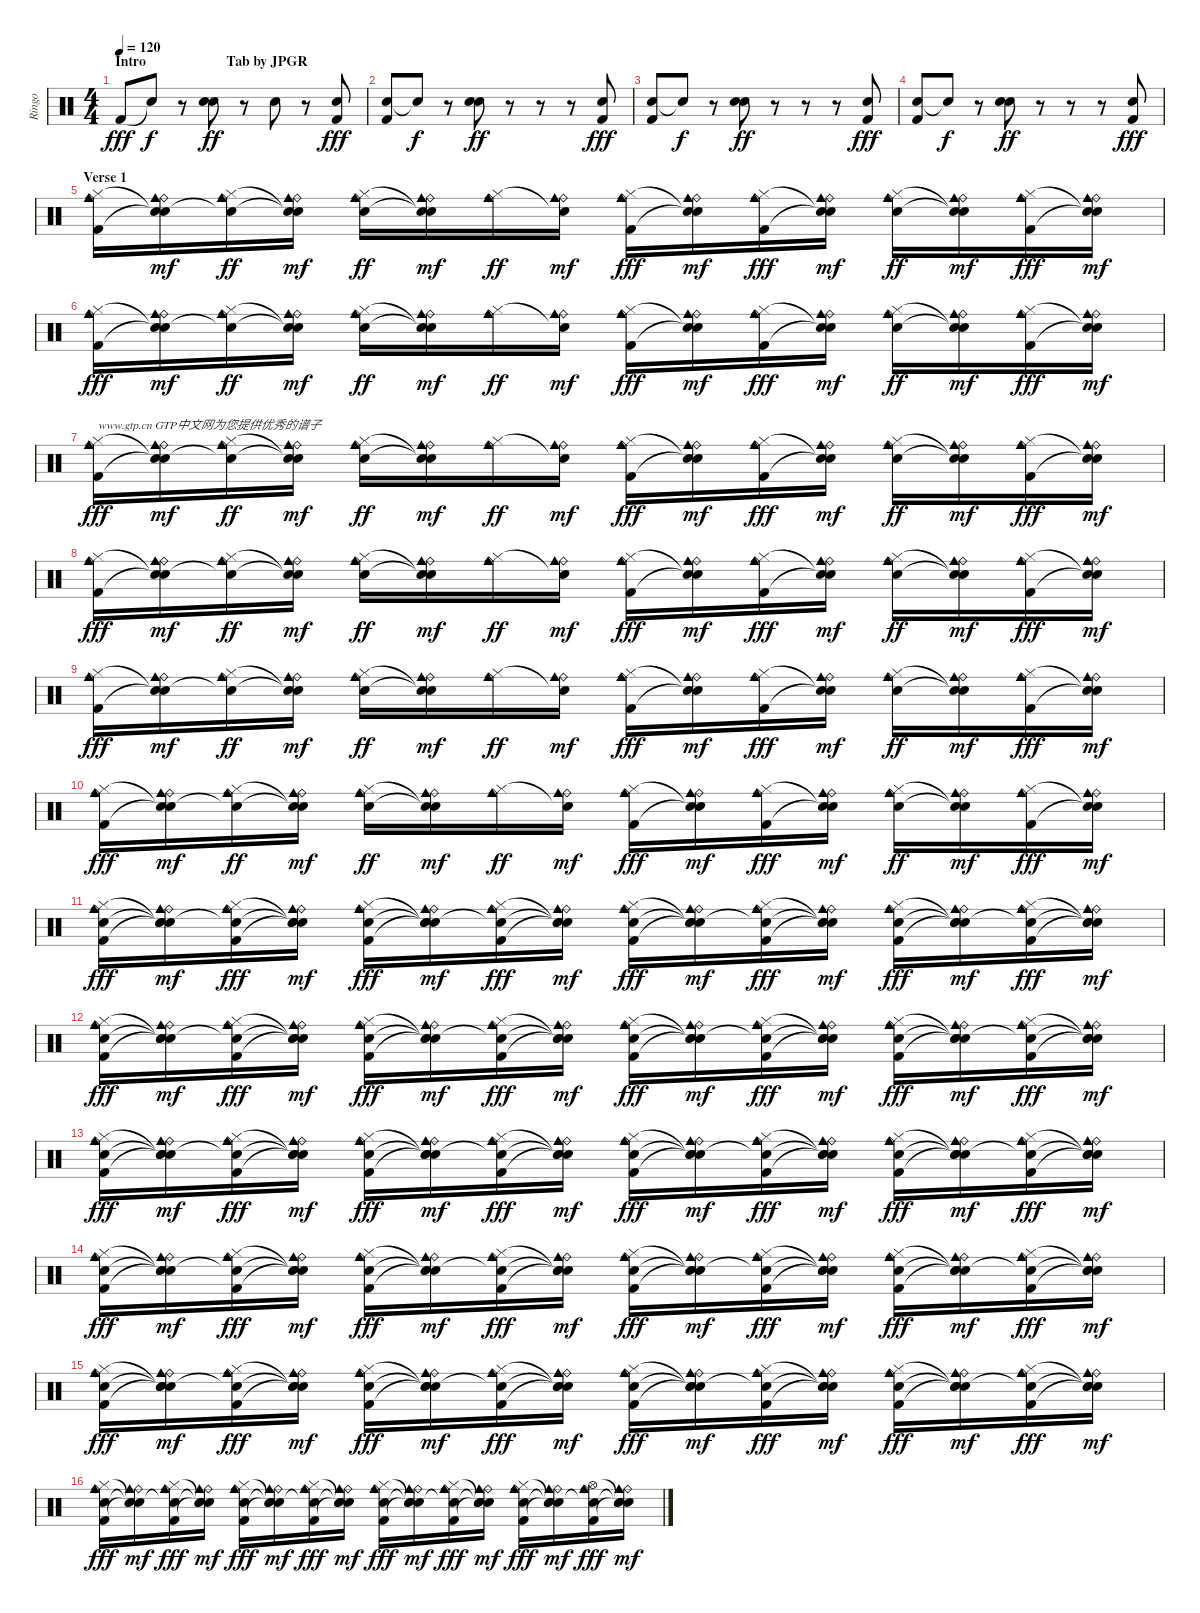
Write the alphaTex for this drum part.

\track ("Ringo" "Ringo") {instrument percussion}
\staff {score}
\articulation defaults
\ts (4 4)
\section ("" "Intro                       Tab by JPGR")
\tempo 120
\clef neutral
\ks c "Kick (hit) 2".8{dy fff} "Snare (hit)"{t}.8{dy f}
r.8 ("Hand Clap (hit)" "Electric Snare (hit)").8{dy ff} r.8 "Hand Clap (hit)".8 r.8 ("Hand Clap (hit)" "Kick (hit) 2").8{dy fff} |
("Hand Clap (hit)" "Kick (hit) 2").8 "Snare (hit)"{t}.8{dy f} r.8 ("Hand Clap (hit)" "Electric Snare (hit)").8{dy ff} r.8 r.8 r.8 ("Hand Clap (hit)" "Kick (hit) 2").8{dy fff} |
("Hand Clap (hit)" "Kick (hit) 2").8 "Snare (hit)"{t}.8{dy f} r.8 ("Hand Clap (hit)" "Electric Snare (hit)").8{dy ff} r.8 r.8 r.8 ("Hand Clap (hit)" "Kick (hit) 2").8{dy fff} |
("Hand Clap (hit)" "Kick (hit) 2").8 "Snare (hit)"{t}.8{dy f} r.8 ("Hand Clap (hit)" "Electric Snare (hit)").8{dy ff} r.8 r.8 r.8 ("Hand Clap (hit)" "Kick (hit) 2").8{dy fff} |
\section ("" "Verse 1")
("Ride (bell)" "Cowbell medium (hit)" "Hi-Hat (closed)" "Kick (hit) 2").16 ("Ride (bell)" "Cowbell medium (hit)" "Snare (hit)"{t} "Snare (hit)"{t}).16{dy mf} ("Ride (bell)" "Cowbell medium (hit)" "Hi-Hat (closed)" "Snare (hit)"{t}).16{dy ff} ("Ride (bell)" "Cowbell medium (hit)" "Snare (hit)"{t} "Snare (hit)"{t}).16{dy mf} ("Ride (bell)" "Cowbell medium (hit)" "Hi-Hat (closed)" "Electric Snare (hit)").16{dy ff} ("Ride (bell)" "Cowbell medium (hit)" "Snare (hit)"{t} "Snare (hit)"{t}).16{dy mf} ("Ride (bell)" "Cowbell medium (hit)" "Hi-Hat (closed)").16{dy ff} ("Ride (bell)" "Cowbell medium (hit)" "Snare (hit)"{t}).16{dy mf} ("Ride (bell)" "Cowbell medium (hit)" "Hi-Hat (closed)" "Kick (hit) 2").16{dy fff} ("Ride (bell)" "Cowbell medium (hit)" "Snare (hit)"{t} "Snare (hit)"{t}).16{dy mf} ("Ride (bell)" "Cowbell medium (hit)" "Hi-Hat (closed)" "Kick (hit) 2").16{dy fff} ("Ride (bell)" "Cowbell medium (hit)" "Snare (hit)"{t} "Snare (hit)"{t}).16{dy mf} ("Ride (bell)" "Cowbell medium (hit)" "Hi-Hat (closed)" "Electric Snare (hit)").16{dy ff} ("Ride (bell)" "Cowbell medium (hit)" "Snare (hit)"{t} "Snare (hit)"{t}).16{dy mf} ("Ride (bell)" "Cowbell medium (hit)" "Hi-Hat (closed)" "Kick (hit) 2").16{dy fff} ("Ride (bell)" "Cowbell medium (hit)" "Snare (hit)"{t} "Snare (hit)"{t}).16{dy mf} |
("Ride (bell)" "Cowbell medium (hit)" "Hi-Hat (closed)" "Kick (hit) 2").16{dy fff} ("Ride (bell)" "Cowbell medium (hit)" "Snare (hit)"{t} "Snare (hit)"{t}).16{dy mf} ("Ride (bell)" "Cowbell medium (hit)" "Hi-Hat (closed)" "Snare (hit)"{t}).16{dy ff} ("Ride (bell)" "Cowbell medium (hit)" "Snare (hit)"{t} "Snare (hit)"{t}).16{dy mf} ("Ride (bell)" "Cowbell medium (hit)" "Hi-Hat (closed)" "Electric Snare (hit)").16{dy ff} ("Ride (bell)" "Cowbell medium (hit)" "Snare (hit)"{t} "Snare (hit)"{t}).16{dy mf} ("Ride (bell)" "Cowbell medium (hit)" "Hi-Hat (closed)").16{dy ff} ("Ride (bell)" "Cowbell medium (hit)" "Snare (hit)"{t}).16{dy mf} ("Ride (bell)" "Cowbell medium (hit)" "Hi-Hat (closed)" "Kick (hit) 2").16{dy fff} ("Ride (bell)" "Cowbell medium (hit)" "Snare (hit)"{t} "Snare (hit)"{t}).16{dy mf} ("Ride (bell)" "Cowbell medium (hit)" "Hi-Hat (closed)" "Kick (hit) 2").16{dy fff} ("Ride (bell)" "Cowbell medium (hit)" "Snare (hit)"{t} "Snare (hit)"{t}).16{dy mf} ("Ride (bell)" "Cowbell medium (hit)" "Hi-Hat (closed)" "Electric Snare (hit)").16{dy ff} ("Ride (bell)" "Cowbell medium (hit)" "Snare (hit)"{t} "Snare (hit)"{t}).16{dy mf} ("Ride (bell)" "Cowbell medium (hit)" "Hi-Hat (closed)" "Kick (hit) 2").16{dy fff} ("Ride (bell)" "Cowbell medium (hit)" "Snare (hit)"{t} "Snare (hit)"{t}).16{dy mf} |
("Ride (bell)" "Cowbell medium (hit)" "Hi-Hat (closed)" "Kick (hit) 2").16{txt "www.gtp.cn GTP中文网为您提供优秀的谱子" dy fff} ("Ride (bell)" "Cowbell medium (hit)" "Snare (hit)"{t} "Snare (hit)"{t}).16{dy mf} ("Ride (bell)" "Cowbell medium (hit)" "Hi-Hat (closed)" "Snare (hit)"{t}).16{dy ff} ("Ride (bell)" "Cowbell medium (hit)" "Snare (hit)"{t} "Snare (hit)"{t}).16{dy mf} ("Ride (bell)" "Cowbell medium (hit)" "Hi-Hat (closed)" "Electric Snare (hit)").16{dy ff} ("Ride (bell)" "Cowbell medium (hit)" "Snare (hit)"{t} "Snare (hit)"{t}).16{dy mf} ("Ride (bell)" "Cowbell medium (hit)" "Hi-Hat (closed)").16{dy ff} ("Ride (bell)" "Cowbell medium (hit)" "Snare (hit)"{t}).16{dy mf} ("Ride (bell)" "Cowbell medium (hit)" "Hi-Hat (closed)" "Kick (hit) 2").16{dy fff} ("Ride (bell)" "Cowbell medium (hit)" "Snare (hit)"{t} "Snare (hit)"{t}).16{dy mf} ("Ride (bell)" "Cowbell medium (hit)" "Hi-Hat (closed)" "Kick (hit) 2").16{dy fff} ("Ride (bell)" "Cowbell medium (hit)" "Snare (hit)"{t} "Snare (hit)"{t}).16{dy mf} ("Ride (bell)" "Cowbell medium (hit)" "Hi-Hat (closed)" "Electric Snare (hit)").16{dy ff} ("Ride (bell)" "Cowbell medium (hit)" "Snare (hit)"{t} "Snare (hit)"{t}).16{dy mf} ("Ride (bell)" "Cowbell medium (hit)" "Hi-Hat (closed)" "Kick (hit) 2").16{dy fff} ("Ride (bell)" "Cowbell medium (hit)" "Snare (hit)"{t} "Snare (hit)"{t}).16{dy mf} |
("Ride (bell)" "Cowbell medium (hit)" "Hi-Hat (closed)" "Kick (hit) 2").16{dy fff} ("Ride (bell)" "Cowbell medium (hit)" "Snare (hit)"{t} "Snare (hit)"{t}).16{dy mf} ("Ride (bell)" "Cowbell medium (hit)" "Hi-Hat (closed)" "Snare (hit)"{t}).16{dy ff} ("Ride (bell)" "Cowbell medium (hit)" "Snare (hit)"{t} "Snare (hit)"{t}).16{dy mf} ("Ride (bell)" "Cowbell medium (hit)" "Hi-Hat (closed)" "Electric Snare (hit)").16{dy ff} ("Ride (bell)" "Cowbell medium (hit)" "Snare (hit)"{t} "Snare (hit)"{t}).16{dy mf} ("Ride (bell)" "Cowbell medium (hit)" "Hi-Hat (closed)").16{dy ff} ("Ride (bell)" "Cowbell medium (hit)" "Snare (hit)"{t}).16{dy mf} ("Ride (bell)" "Cowbell medium (hit)" "Hi-Hat (closed)" "Kick (hit) 2").16{dy fff} ("Ride (bell)" "Cowbell medium (hit)" "Snare (hit)"{t} "Snare (hit)"{t}).16{dy mf} ("Ride (bell)" "Cowbell medium (hit)" "Hi-Hat (closed)" "Kick (hit) 2").16{dy fff} ("Ride (bell)" "Cowbell medium (hit)" "Snare (hit)"{t} "Snare (hit)"{t}).16{dy mf} ("Ride (bell)" "Cowbell medium (hit)" "Hi-Hat (closed)" "Electric Snare (hit)").16{dy ff} ("Ride (bell)" "Cowbell medium (hit)" "Snare (hit)"{t} "Snare (hit)"{t}).16{dy mf} ("Ride (bell)" "Cowbell medium (hit)" "Hi-Hat (closed)" "Kick (hit) 2").16{dy fff} ("Ride (bell)" "Cowbell medium (hit)" "Snare (hit)"{t} "Snare (hit)"{t}).16{dy mf} |
("Ride (bell)" "Cowbell medium (hit)" "Hi-Hat (closed)" "Kick (hit) 2").16{dy fff} ("Ride (bell)" "Cowbell medium (hit)" "Snare (hit)"{t} "Snare (hit)"{t}).16{dy mf} ("Ride (bell)" "Cowbell medium (hit)" "Hi-Hat (closed)" "Snare (hit)"{t}).16{dy ff} ("Ride (bell)" "Cowbell medium (hit)" "Snare (hit)"{t} "Snare (hit)"{t}).16{dy mf} ("Ride (bell)" "Cowbell medium (hit)" "Hi-Hat (closed)" "Electric Snare (hit)").16{dy ff} ("Ride (bell)" "Cowbell medium (hit)" "Snare (hit)"{t} "Snare (hit)"{t}).16{dy mf} ("Ride (bell)" "Cowbell medium (hit)" "Hi-Hat (closed)").16{dy ff} ("Ride (bell)" "Cowbell medium (hit)" "Snare (hit)"{t}).16{dy mf} ("Ride (bell)" "Cowbell medium (hit)" "Hi-Hat (closed)" "Kick (hit) 2").16{dy fff} ("Ride (bell)" "Cowbell medium (hit)" "Snare (hit)"{t} "Snare (hit)"{t}).16{dy mf} ("Ride (bell)" "Cowbell medium (hit)" "Hi-Hat (closed)" "Kick (hit) 2").16{dy fff} ("Ride (bell)" "Cowbell medium (hit)" "Snare (hit)"{t} "Snare (hit)"{t}).16{dy mf} ("Ride (bell)" "Cowbell medium (hit)" "Hi-Hat (closed)" "Electric Snare (hit)").16{dy ff} ("Ride (bell)" "Cowbell medium (hit)" "Snare (hit)"{t} "Snare (hit)"{t}).16{dy mf} ("Ride (bell)" "Cowbell medium (hit)" "Hi-Hat (closed)" "Kick (hit) 2").16{dy fff} ("Ride (bell)" "Cowbell medium (hit)" "Snare (hit)"{t} "Snare (hit)"{t}).16{dy mf} |
("Ride (bell)" "Cowbell medium (hit)" "Hi-Hat (closed)" "Kick (hit) 2").16{dy fff} ("Ride (bell)" "Cowbell medium (hit)" "Snare (hit)"{t} "Snare (hit)"{t}).16{dy mf} ("Ride (bell)" "Cowbell medium (hit)" "Hi-Hat (closed)" "Snare (hit)"{t}).16{dy ff} ("Ride (bell)" "Cowbell medium (hit)" "Snare (hit)"{t} "Snare (hit)"{t}).16{dy mf} ("Ride (bell)" "Cowbell medium (hit)" "Hi-Hat (closed)" "Electric Snare (hit)").16{dy ff} ("Ride (bell)" "Cowbell medium (hit)" "Snare (hit)"{t} "Snare (hit)"{t}).16{dy mf} ("Ride (bell)" "Cowbell medium (hit)" "Hi-Hat (closed)").16{dy ff} ("Ride (bell)" "Cowbell medium (hit)" "Snare (hit)"{t}).16{dy mf} ("Ride (bell)" "Cowbell medium (hit)" "Hi-Hat (closed)" "Kick (hit) 2").16{dy fff} ("Ride (bell)" "Cowbell medium (hit)" "Snare (hit)"{t} "Snare (hit)"{t}).16{dy mf} ("Ride (bell)" "Cowbell medium (hit)" "Hi-Hat (closed)" "Kick (hit) 2").16{dy fff} ("Ride (bell)" "Cowbell medium (hit)" "Snare (hit)"{t} "Snare (hit)"{t}).16{dy mf} ("Ride (bell)" "Cowbell medium (hit)" "Hi-Hat (closed)" "Electric Snare (hit)").16{dy ff} ("Ride (bell)" "Cowbell medium (hit)" "Snare (hit)"{t} "Snare (hit)"{t}).16{dy mf} ("Ride (bell)" "Cowbell medium (hit)" "Hi-Hat (closed)" "Kick (hit) 2").16{dy fff} ("Ride (bell)" "Cowbell medium (hit)" "Snare (hit)"{t} "Snare (hit)"{t}).16{dy mf} |
("Ride (bell)" "Cowbell medium (hit)" "Hi-Hat (closed)" "Electric Snare (hit)" "Kick (hit) 2").16{dy fff} ("Ride (bell)" "Cowbell medium (hit)" "Snare (hit)"{t} "Snare (hit)"{t} "Snare (hit)"{t}).16{dy mf} ("Ride (bell)" "Cowbell medium (hit)" "Hi-Hat (closed)" "Electric Snare (hit)"{t} "Kick (hit) 2").16{dy fff} ("Ride (bell)" "Cowbell medium (hit)" "Snare (hit)"{t} "Snare (hit)"{t} "Snare (hit)"{t}).16{dy mf} ("Ride (bell)" "Cowbell medium (hit)" "Hi-Hat (closed)" "Electric Snare (hit)" "Kick (hit) 2").16{dy fff} ("Ride (bell)" "Cowbell medium (hit)" "Snare (hit)"{t} "Snare (hit)"{t} "Snare (hit)"{t}).16{dy mf} ("Ride (bell)" "Cowbell medium (hit)" "Hi-Hat (closed)" "Snare (hit)"{t} "Kick (hit) 2").16{dy fff} ("Ride (bell)" "Cowbell medium (hit)" "Snare (hit)"{t} "Snare (hit)"{t} "Snare (hit)"{t}).16{dy mf} ("Ride (bell)" "Cowbell medium (hit)" "Hi-Hat (closed)" "Electric Snare (hit)" "Kick (hit) 2").16{dy fff} ("Ride (bell)" "Cowbell medium (hit)" "Snare (hit)"{t} "Snare (hit)"{t} "Snare (hit)"{t}).16{dy mf} ("Ride (bell)" "Cowbell medium (hit)" "Hi-Hat (closed)" "Snare (hit)"{t} "Kick (hit) 2").16{dy fff} ("Ride (bell)" "Cowbell medium (hit)" "Snare (hit)"{t} "Snare (hit)"{t} "Snare (hit)"{t}).16{dy mf} ("Ride (bell)" "Cowbell medium (hit)" "Hi-Hat (closed)" "Electric Snare (hit)" "Kick (hit) 2").16{dy fff} ("Ride (bell)" "Cowbell medium (hit)" "Snare (hit)"{t} "Snare (hit)"{t} "Snare (hit)"{t}).16{dy mf} ("Ride (bell)" "Cowbell medium (hit)" "Hi-Hat (closed)" "Snare (hit)"{t} "Kick (hit) 2").16{dy fff} ("Ride (bell)" "Cowbell medium (hit)" "Snare (hit)"{t} "Snare (hit)"{t} "Snare (hit)"{t}).16{dy mf} |
("Ride (bell)" "Cowbell medium (hit)" "Hi-Hat (closed)" "Electric Snare (hit)" "Kick (hit) 2").16{dy fff} ("Ride (bell)" "Cowbell medium (hit)" "Snare (hit)"{t} "Snare (hit)"{t} "Snare (hit)"{t}).16{dy mf} ("Ride (bell)" "Cowbell medium (hit)" "Hi-Hat (closed)" "Electric Snare (hit)"{t} "Kick (hit) 2").16{dy fff} ("Ride (bell)" "Cowbell medium (hit)" "Snare (hit)"{t} "Snare (hit)"{t} "Snare (hit)"{t}).16{dy mf} ("Ride (bell)" "Cowbell medium (hit)" "Hi-Hat (closed)" "Electric Snare (hit)" "Kick (hit) 2").16{dy fff} ("Ride (bell)" "Cowbell medium (hit)" "Snare (hit)"{t} "Snare (hit)"{t} "Snare (hit)"{t}).16{dy mf} ("Ride (bell)" "Cowbell medium (hit)" "Hi-Hat (closed)" "Snare (hit)"{t} "Kick (hit) 2").16{dy fff} ("Ride (bell)" "Cowbell medium (hit)" "Snare (hit)"{t} "Snare (hit)"{t} "Snare (hit)"{t}).16{dy mf} ("Ride (bell)" "Cowbell medium (hit)" "Hi-Hat (closed)" "Electric Snare (hit)" "Kick (hit) 2").16{dy fff} ("Ride (bell)" "Cowbell medium (hit)" "Snare (hit)"{t} "Snare (hit)"{t} "Snare (hit)"{t}).16{dy mf} ("Ride (bell)" "Cowbell medium (hit)" "Hi-Hat (closed)" "Snare (hit)"{t} "Kick (hit) 2").16{dy fff} ("Ride (bell)" "Cowbell medium (hit)" "Snare (hit)"{t} "Snare (hit)"{t} "Snare (hit)"{t}).16{dy mf} ("Ride (bell)" "Cowbell medium (hit)" "Hi-Hat (closed)" "Electric Snare (hit)" "Kick (hit) 2").16{dy fff} ("Ride (bell)" "Cowbell medium (hit)" "Snare (hit)"{t} "Snare (hit)"{t} "Snare (hit)"{t}).16{dy mf} ("Ride (bell)" "Cowbell medium (hit)" "Hi-Hat (closed)" "Snare (hit)"{t} "Kick (hit) 2").16{dy fff} ("Ride (bell)" "Cowbell medium (hit)" "Snare (hit)"{t} "Snare (hit)"{t} "Snare (hit)"{t}).16{dy mf} |
("Ride (bell)" "Cowbell medium (hit)" "Hi-Hat (closed)" "Electric Snare (hit)" "Kick (hit) 2").16{dy fff} ("Ride (bell)" "Cowbell medium (hit)" "Snare (hit)"{t} "Snare (hit)"{t} "Snare (hit)"{t}).16{dy mf} ("Ride (bell)" "Cowbell medium (hit)" "Hi-Hat (closed)" "Electric Snare (hit)"{t} "Kick (hit) 2").16{dy fff} ("Ride (bell)" "Cowbell medium (hit)" "Snare (hit)"{t} "Snare (hit)"{t} "Snare (hit)"{t}).16{dy mf} ("Ride (bell)" "Cowbell medium (hit)" "Hi-Hat (closed)" "Electric Snare (hit)" "Kick (hit) 2").16{dy fff} ("Ride (bell)" "Cowbell medium (hit)" "Snare (hit)"{t} "Snare (hit)"{t} "Snare (hit)"{t}).16{dy mf} ("Ride (bell)" "Cowbell medium (hit)" "Hi-Hat (closed)" "Snare (hit)"{t} "Kick (hit) 2").16{dy fff} ("Ride (bell)" "Cowbell medium (hit)" "Snare (hit)"{t} "Snare (hit)"{t} "Snare (hit)"{t}).16{dy mf} ("Ride (bell)" "Cowbell medium (hit)" "Hi-Hat (closed)" "Electric Snare (hit)" "Kick (hit) 2").16{dy fff} ("Ride (bell)" "Cowbell medium (hit)" "Snare (hit)"{t} "Snare (hit)"{t} "Snare (hit)"{t}).16{dy mf} ("Ride (bell)" "Cowbell medium (hit)" "Hi-Hat (closed)" "Snare (hit)"{t} "Kick (hit) 2").16{dy fff} ("Ride (bell)" "Cowbell medium (hit)" "Snare (hit)"{t} "Snare (hit)"{t} "Snare (hit)"{t}).16{dy mf} ("Ride (bell)" "Cowbell medium (hit)" "Hi-Hat (closed)" "Electric Snare (hit)" "Kick (hit) 2").16{dy fff} ("Ride (bell)" "Cowbell medium (hit)" "Snare (hit)"{t} "Snare (hit)"{t} "Snare (hit)"{t}).16{dy mf} ("Ride (bell)" "Cowbell medium (hit)" "Hi-Hat (closed)" "Snare (hit)"{t} "Kick (hit) 2").16{dy fff} ("Ride (bell)" "Cowbell medium (hit)" "Snare (hit)"{t} "Snare (hit)"{t} "Snare (hit)"{t}).16{dy mf} |
("Ride (bell)" "Cowbell medium (hit)" "Hi-Hat (closed)" "Electric Snare (hit)" "Kick (hit) 2").16{dy fff} ("Ride (bell)" "Cowbell medium (hit)" "Snare (hit)"{t} "Snare (hit)"{t} "Snare (hit)"{t}).16{dy mf} ("Ride (bell)" "Cowbell medium (hit)" "Hi-Hat (closed)" "Electric Snare (hit)"{t} "Kick (hit) 2").16{dy fff} ("Ride (bell)" "Cowbell medium (hit)" "Snare (hit)"{t} "Snare (hit)"{t} "Snare (hit)"{t}).16{dy mf} ("Ride (bell)" "Cowbell medium (hit)" "Hi-Hat (closed)" "Electric Snare (hit)" "Kick (hit) 2").16{dy fff} ("Ride (bell)" "Cowbell medium (hit)" "Snare (hit)"{t} "Snare (hit)"{t} "Snare (hit)"{t}).16{dy mf} ("Ride (bell)" "Cowbell medium (hit)" "Hi-Hat (closed)" "Snare (hit)"{t} "Kick (hit) 2").16{dy fff} ("Ride (bell)" "Cowbell medium (hit)" "Snare (hit)"{t} "Snare (hit)"{t} "Snare (hit)"{t}).16{dy mf} ("Ride (bell)" "Cowbell medium (hit)" "Hi-Hat (closed)" "Electric Snare (hit)" "Kick (hit) 2").16{dy fff} ("Ride (bell)" "Cowbell medium (hit)" "Snare (hit)"{t} "Snare (hit)"{t} "Snare (hit)"{t}).16{dy mf} ("Ride (bell)" "Cowbell medium (hit)" "Hi-Hat (closed)" "Snare (hit)"{t} "Kick (hit) 2").16{dy fff} ("Ride (bell)" "Cowbell medium (hit)" "Snare (hit)"{t} "Snare (hit)"{t} "Snare (hit)"{t}).16{dy mf} ("Ride (bell)" "Cowbell medium (hit)" "Hi-Hat (closed)" "Electric Snare (hit)" "Kick (hit) 2").16{dy fff} ("Ride (bell)" "Cowbell medium (hit)" "Snare (hit)"{t} "Snare (hit)"{t} "Snare (hit)"{t}).16{dy mf} ("Ride (bell)" "Cowbell medium (hit)" "Hi-Hat (closed)" "Snare (hit)"{t} "Kick (hit) 2").16{dy fff} ("Ride (bell)" "Cowbell medium (hit)" "Snare (hit)"{t} "Snare (hit)"{t} "Snare (hit)"{t}).16{dy mf} |
("Ride (bell)" "Cowbell medium (hit)" "Hi-Hat (closed)" "Electric Snare (hit)" "Kick (hit) 2").16{dy fff} ("Ride (bell)" "Cowbell medium (hit)" "Snare (hit)"{t} "Snare (hit)"{t} "Snare (hit)"{t}).16{dy mf} ("Ride (bell)" "Cowbell medium (hit)" "Hi-Hat (closed)" "Electric Snare (hit)"{t} "Kick (hit) 2").16{dy fff} ("Ride (bell)" "Cowbell medium (hit)" "Snare (hit)"{t} "Snare (hit)"{t} "Snare (hit)"{t}).16{dy mf} ("Ride (bell)" "Cowbell medium (hit)" "Hi-Hat (closed)" "Electric Snare (hit)" "Kick (hit) 2").16{dy fff} ("Ride (bell)" "Cowbell medium (hit)" "Snare (hit)"{t} "Snare (hit)"{t} "Snare (hit)"{t}).16{dy mf} ("Ride (bell)" "Cowbell medium (hit)" "Hi-Hat (closed)" "Snare (hit)"{t} "Kick (hit) 2").16{dy fff} ("Ride (bell)" "Cowbell medium (hit)" "Snare (hit)"{t} "Snare (hit)"{t} "Snare (hit)"{t}).16{dy mf} ("Ride (bell)" "Cowbell medium (hit)" "Hi-Hat (closed)" "Electric Snare (hit)" "Kick (hit) 2").16{dy fff} ("Ride (bell)" "Cowbell medium (hit)" "Snare (hit)"{t} "Snare (hit)"{t} "Snare (hit)"{t}).16{dy mf} ("Ride (bell)" "Cowbell medium (hit)" "Hi-Hat (closed)" "Snare (hit)"{t} "Kick (hit) 2").16{dy fff} ("Ride (bell)" "Cowbell medium (hit)" "Snare (hit)"{t} "Snare (hit)"{t} "Snare (hit)"{t}).16{dy mf} ("Ride (bell)" "Cowbell medium (hit)" "Hi-Hat (closed)" "Electric Snare (hit)" "Kick (hit) 2").16{dy fff} ("Ride (bell)" "Cowbell medium (hit)" "Snare (hit)"{t} "Snare (hit)"{t} "Snare (hit)"{t}).16{dy mf} ("Ride (bell)" "Cowbell medium (hit)" "Hi-Hat (closed)" "Snare (hit)"{t} "Kick (hit) 2").16{dy fff} ("Ride (bell)" "Cowbell medium (hit)" "Snare (hit)"{t} "Snare (hit)"{t} "Snare (hit)"{t}).16{dy mf} |
("Ride (bell)" "Cowbell medium (hit)" "Hi-Hat (closed)" "Electric Snare (hit)" "Kick (hit) 2").16{dy fff} ("Ride (bell)" "Cowbell medium (hit)" "Snare (hit)"{t} "Snare (hit)"{t} "Snare (hit)"{t}).16{dy mf} ("Ride (bell)" "Cowbell medium (hit)" "Hi-Hat (closed)" "Electric Snare (hit)"{t} "Kick (hit) 2").16{dy fff} ("Ride (bell)" "Cowbell medium (hit)" "Snare (hit)"{t} "Snare (hit)"{t} "Snare (hit)"{t}).16{dy mf} ("Ride (bell)" "Cowbell medium (hit)" "Hi-Hat (closed)" "Electric Snare (hit)" "Kick (hit) 2").16{dy fff} ("Ride (bell)" "Cowbell medium (hit)" "Snare (hit)"{t} "Snare (hit)"{t} "Snare (hit)"{t}).16{dy mf} ("Ride (bell)" "Cowbell medium (hit)" "Hi-Hat (closed)" "Snare (hit)"{t} "Kick (hit) 2").16{dy fff} ("Ride (bell)" "Cowbell medium (hit)" "Snare (hit)"{t} "Snare (hit)"{t} "Snare (hit)"{t}).16{dy mf} ("Ride (bell)" "Cowbell medium (hit)" "Hi-Hat (closed)" "Electric Snare (hit)" "Kick (hit) 2").16{dy fff} ("Ride (bell)" "Cowbell medium (hit)" "Snare (hit)"{t} "Snare (hit)"{t} "Snare (hit)"{t}).16{dy mf} ("Ride (bell)" "Cowbell medium (hit)" "Hi-Hat (closed)" "Snare (hit)"{t} "Kick (hit) 2").16{dy fff} ("Ride (bell)" "Cowbell medium (hit)" "Snare (hit)"{t} "Snare (hit)"{t} "Snare (hit)"{t}).16{dy mf} ("Ride (bell)" "Cowbell medium (hit)" "Hi-Hat (closed)" "Electric Snare (hit)" "Kick (hit) 2").16{dy fff} ("Ride (bell)" "Cowbell medium (hit)" "Snare (hit)"{t} "Snare (hit)"{t} "Snare (hit)"{t}).16{dy mf} ("Ride (bell)" "Cowbell medium (hit)" "Hi-Hat (open)" "Snare (hit)"{t} "Kick (hit) 2").16{dy fff} ("Ride (bell)" "Cowbell medium (hit)" "Snare (hit)"{t} "Snare (hit)"{t} "Snare (hit)"{t}).16{dy mf}
